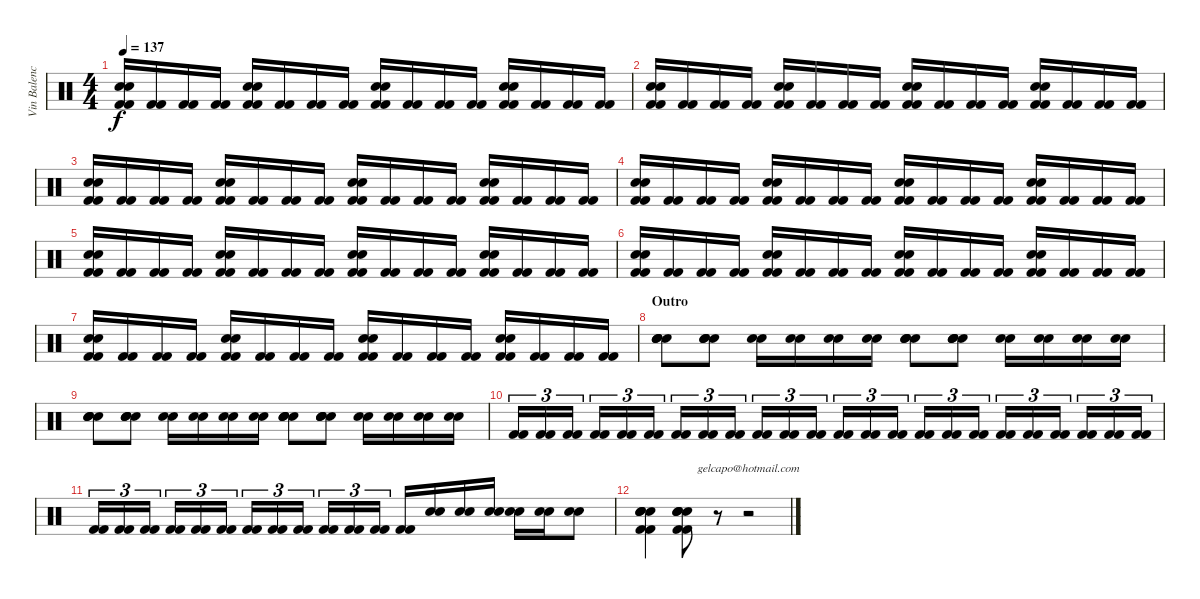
\track ("Vin Balencia (bateria)" "Vin Balenc") {instrument percussion}
\staff {score}
\articulation defaults
\chord ("gelcapo@hotmail.com") {firstfret 0}
\ts (4 4)
\tempo 137
\clef neutral
\ks c
("Electric Snare (hit)" "Electric Snare (hit)" "Kick (hit) 2" "Kick (hit) 2").16{dy f} ("Kick (hit) 2" "Kick (hit) 2").16 ("Kick (hit) 2" "Kick (hit) 2").16 ("Kick (hit) 2" "Kick (hit) 2").16 ("Electric Snare (hit)" "Electric Snare (hit)" "Kick (hit) 2" "Kick (hit) 2").16 ("Kick (hit) 2" "Kick (hit) 2").16 ("Kick (hit) 2" "Kick (hit) 2").16 ("Kick (hit) 2" "Kick (hit) 2").16 ("Electric Snare (hit)" "Electric Snare (hit)" "Kick (hit) 2" "Kick (hit) 2").16 ("Kick (hit) 2" "Kick (hit) 2").16 ("Kick (hit) 2" "Kick (hit) 2").16 ("Kick (hit) 2" "Kick (hit) 2").16 ("Electric Snare (hit)" "Electric Snare (hit)" "Kick (hit) 2" "Kick (hit) 2").16 ("Kick (hit) 2" "Kick (hit) 2").16 ("Kick (hit) 2" "Kick (hit) 2").16 ("Kick (hit) 2" "Kick (hit) 2").16 |
("Electric Snare (hit)" "Electric Snare (hit)" "Kick (hit) 2" "Kick (hit) 2").16 ("Kick (hit) 2" "Kick (hit) 2").16 ("Kick (hit) 2" "Kick (hit) 2").16 ("Kick (hit) 2" "Kick (hit) 2").16 ("Electric Snare (hit)" "Electric Snare (hit)" "Kick (hit) 2" "Kick (hit) 2").16 ("Kick (hit) 2" "Kick (hit) 2").16 ("Kick (hit) 2" "Kick (hit) 2").16 ("Kick (hit) 2" "Kick (hit) 2").16 ("Electric Snare (hit)" "Electric Snare (hit)" "Kick (hit) 2" "Kick (hit) 2").16 ("Kick (hit) 2" "Kick (hit) 2").16 ("Kick (hit) 2" "Kick (hit) 2").16 ("Kick (hit) 2" "Kick (hit) 2").16 ("Electric Snare (hit)" "Electric Snare (hit)" "Kick (hit) 2" "Kick (hit) 2").16 ("Kick (hit) 2" "Kick (hit) 2").16 ("Kick (hit) 2" "Kick (hit) 2").16 ("Kick (hit) 2" "Kick (hit) 2").16 |
("Electric Snare (hit)" "Electric Snare (hit)" "Kick (hit) 2" "Kick (hit) 2").16 ("Kick (hit) 2" "Kick (hit) 2").16 ("Kick (hit) 2" "Kick (hit) 2").16 ("Kick (hit) 2" "Kick (hit) 2").16 ("Electric Snare (hit)" "Electric Snare (hit)" "Kick (hit) 2" "Kick (hit) 2").16 ("Kick (hit) 2" "Kick (hit) 2").16 ("Kick (hit) 2" "Kick (hit) 2").16 ("Kick (hit) 2" "Kick (hit) 2").16 ("Electric Snare (hit)" "Electric Snare (hit)" "Kick (hit) 2" "Kick (hit) 2").16 ("Kick (hit) 2" "Kick (hit) 2").16 ("Kick (hit) 2" "Kick (hit) 2").16 ("Kick (hit) 2" "Kick (hit) 2").16 ("Electric Snare (hit)" "Electric Snare (hit)" "Kick (hit) 2" "Kick (hit) 2").16 ("Kick (hit) 2" "Kick (hit) 2").16 ("Kick (hit) 2" "Kick (hit) 2").16 ("Kick (hit) 2" "Kick (hit) 2").16 |
("Electric Snare (hit)" "Electric Snare (hit)" "Kick (hit) 2" "Kick (hit) 2").16 ("Kick (hit) 2" "Kick (hit) 2").16 ("Kick (hit) 2" "Kick (hit) 2").16 ("Kick (hit) 2" "Kick (hit) 2").16 ("Electric Snare (hit)" "Electric Snare (hit)" "Kick (hit) 2" "Kick (hit) 2").16 ("Kick (hit) 2" "Kick (hit) 2").16 ("Kick (hit) 2" "Kick (hit) 2").16 ("Kick (hit) 2" "Kick (hit) 2").16 ("Electric Snare (hit)" "Electric Snare (hit)" "Kick (hit) 2" "Kick (hit) 2").16 ("Kick (hit) 2" "Kick (hit) 2").16 ("Kick (hit) 2" "Kick (hit) 2").16 ("Kick (hit) 2" "Kick (hit) 2").16 ("Electric Snare (hit)" "Electric Snare (hit)" "Kick (hit) 2" "Kick (hit) 2").16 ("Kick (hit) 2" "Kick (hit) 2").16 ("Kick (hit) 2" "Kick (hit) 2").16 ("Kick (hit) 2" "Kick (hit) 2").16 |
("Electric Snare (hit)" "Electric Snare (hit)" "Kick (hit) 2" "Kick (hit) 2").16 ("Kick (hit) 2" "Kick (hit) 2").16 ("Kick (hit) 2" "Kick (hit) 2").16 ("Kick (hit) 2" "Kick (hit) 2").16 ("Electric Snare (hit)" "Electric Snare (hit)" "Kick (hit) 2" "Kick (hit) 2").16 ("Kick (hit) 2" "Kick (hit) 2").16 ("Kick (hit) 2" "Kick (hit) 2").16 ("Kick (hit) 2" "Kick (hit) 2").16 ("Electric Snare (hit)" "Electric Snare (hit)" "Kick (hit) 2" "Kick (hit) 2").16 ("Kick (hit) 2" "Kick (hit) 2").16 ("Kick (hit) 2" "Kick (hit) 2").16 ("Kick (hit) 2" "Kick (hit) 2").16 ("Electric Snare (hit)" "Electric Snare (hit)" "Kick (hit) 2" "Kick (hit) 2").16 ("Kick (hit) 2" "Kick (hit) 2").16 ("Kick (hit) 2" "Kick (hit) 2").16 ("Kick (hit) 2" "Kick (hit) 2").16 |
("Electric Snare (hit)" "Electric Snare (hit)" "Kick (hit) 2" "Kick (hit) 2").16 ("Kick (hit) 2" "Kick (hit) 2").16 ("Kick (hit) 2" "Kick (hit) 2").16 ("Kick (hit) 2" "Kick (hit) 2").16 ("Electric Snare (hit)" "Electric Snare (hit)" "Kick (hit) 2" "Kick (hit) 2").16 ("Kick (hit) 2" "Kick (hit) 2").16 ("Kick (hit) 2" "Kick (hit) 2").16 ("Kick (hit) 2" "Kick (hit) 2").16 ("Electric Snare (hit)" "Electric Snare (hit)" "Kick (hit) 2" "Kick (hit) 2").16 ("Kick (hit) 2" "Kick (hit) 2").16 ("Kick (hit) 2" "Kick (hit) 2").16 ("Kick (hit) 2" "Kick (hit) 2").16 ("Electric Snare (hit)" "Electric Snare (hit)" "Kick (hit) 2" "Kick (hit) 2").16 ("Kick (hit) 2" "Kick (hit) 2").16 ("Kick (hit) 2" "Kick (hit) 2").16 ("Kick (hit) 2" "Kick (hit) 2").16 |
("Electric Snare (hit)" "Electric Snare (hit)" "Kick (hit) 2" "Kick (hit) 2").16 ("Kick (hit) 2" "Kick (hit) 2").16 ("Kick (hit) 2" "Kick (hit) 2").16 ("Kick (hit) 2" "Kick (hit) 2").16 ("Electric Snare (hit)" "Electric Snare (hit)" "Kick (hit) 2" "Kick (hit) 2").16 ("Kick (hit) 2" "Kick (hit) 2").16 ("Kick (hit) 2" "Kick (hit) 2").16 ("Kick (hit) 2" "Kick (hit) 2").16 ("Electric Snare (hit)" "Electric Snare (hit)" "Kick (hit) 2" "Kick (hit) 2").16 ("Kick (hit) 2" "Kick (hit) 2").16 ("Kick (hit) 2" "Kick (hit) 2").16 ("Kick (hit) 2" "Kick (hit) 2").16 ("Electric Snare (hit)" "Electric Snare (hit)" "Kick (hit) 2" "Kick (hit) 2").16 ("Kick (hit) 2" "Kick (hit) 2").16 ("Kick (hit) 2" "Kick (hit) 2").16 ("Kick (hit) 2" "Kick (hit) 2").16 |
\section ("" "Outro")
("Electric Snare (hit)" "Electric Snare (hit)" "Snare (hit) 2" "Snare (hit) 2").8 ("Electric Snare (hit)" "Electric Snare (hit)" "Snare (hit) 2" "Snare (hit) 2").8 ("Snare (hit) 2" "Snare (hit) 2").16 ("Snare (hit) 2" "Snare (hit) 2").16 ("Snare (hit) 2" "Snare (hit) 2").16 ("Snare (hit) 2" "Snare (hit) 2").16 ("Electric Snare (hit)" "Electric Snare (hit)" "Snare (hit) 2" "Snare (hit) 2").8 ("Electric Snare (hit)" "Electric Snare (hit)" "Snare (hit) 2" "Snare (hit) 2").8 ("Snare (hit) 2" "Snare (hit) 2").16 ("Snare (hit) 2" "Snare (hit) 2").16 ("Snare (hit) 2" "Snare (hit) 2").16 ("Snare (hit) 2" "Snare (hit) 2").16 |
("Electric Snare (hit)" "Electric Snare (hit)" "Snare (hit) 2" "Snare (hit) 2").8 ("Electric Snare (hit)" "Electric Snare (hit)" "Snare (hit) 2" "Snare (hit) 2").8 ("Snare (hit) 2" "Snare (hit) 2").16 ("Snare (hit) 2" "Snare (hit) 2").16 ("Snare (hit) 2" "Snare (hit) 2").16 ("Snare (hit) 2" "Snare (hit) 2").16 ("Electric Snare (hit)" "Electric Snare (hit)" "Snare (hit) 2" "Snare (hit) 2").8 ("Electric Snare (hit)" "Electric Snare (hit)" "Snare (hit) 2" "Snare (hit) 2").8 ("Snare (hit) 2" "Snare (hit) 2").16 ("Snare (hit) 2" "Snare (hit) 2").16 ("Snare (hit) 2" "Snare (hit) 2").16 ("Snare (hit) 2" "Snare (hit) 2").16 |
("Kick (hit) 2" "Kick (hit) 2").16{tu (3 2)} ("Kick (hit) 2" "Kick (hit) 2").16{tu (3 2)} ("Kick (hit) 2" "Kick (hit) 2").16{tu (3 2)} ("Kick (hit) 2" "Kick (hit) 2").16{tu (3 2)} ("Kick (hit) 2" "Kick (hit) 2").16{tu (3 2)} ("Kick (hit) 2" "Kick (hit) 2").16{tu (3 2)} ("Kick (hit) 2" "Kick (hit) 2").16{tu (3 2)} ("Kick (hit) 2" "Kick (hit) 2").16{tu (3 2)} ("Kick (hit) 2" "Kick (hit) 2").16{tu (3 2)} ("Kick (hit) 2" "Kick (hit) 2").16{tu (3 2)} ("Kick (hit) 2" "Kick (hit) 2").16{tu (3 2)} ("Kick (hit) 2" "Kick (hit) 2").16{tu (3 2)} ("Kick (hit) 2" "Kick (hit) 2").16{tu (3 2)} ("Kick (hit) 2" "Kick (hit) 2").16{tu (3 2)} ("Kick (hit) 2" "Kick (hit) 2").16{tu (3 2)} ("Kick (hit) 2" "Kick (hit) 2").16{tu (3 2)} ("Kick (hit) 2" "Kick (hit) 2").16{tu (3 2)} ("Kick (hit) 2" "Kick (hit) 2").16{tu (3 2)} ("Kick (hit) 2" "Kick (hit) 2").16{tu (3 2)} ("Kick (hit) 2" "Kick (hit) 2").16{tu (3 2)} ("Kick (hit) 2" "Kick (hit) 2").16{tu (3 2)} ("Kick (hit) 2" "Kick (hit) 2").16{tu (3 2)} ("Kick (hit) 2" "Kick (hit) 2").16{tu (3 2)} ("Kick (hit) 2" "Kick (hit) 2").16{tu (3 2)} |
("Kick (hit) 2" "Kick (hit) 2").16{tu (3 2)} ("Kick (hit) 2" "Kick (hit) 2").16{tu (3 2)} ("Kick (hit) 2" "Kick (hit) 2").16{tu (3 2)} ("Kick (hit) 2" "Kick (hit) 2").16{tu (3 2)} ("Kick (hit) 2" "Kick (hit) 2").16{tu (3 2)} ("Kick (hit) 2" "Kick (hit) 2").16{tu (3 2)} ("Kick (hit) 2" "Kick (hit) 2").16{tu (3 2)} ("Kick (hit) 2" "Kick (hit) 2").16{tu (3 2)} ("Kick (hit) 2" "Kick (hit) 2").16{tu (3 2)} ("Kick (hit) 2" "Kick (hit) 2").16{tu (3 2)} ("Kick (hit) 2" "Kick (hit) 2").16{tu (3 2)} ("Kick (hit) 2" "Kick (hit) 2").16{tu (3 2)} ("Kick (hit) 2" "Kick (hit) 2").16 ("Snare (hit) 2" "Snare (hit) 2").16 ("Snare (hit) 2" "Snare (hit) 2").16 ("Snare (hit) 2" "Snare (hit) 2").16 ("Snare (hit) 2" "Snare (hit) 2").16 ("Snare (hit) 2" "Snare (hit) 2").16 ("Snare (hit) 2" "Snare (hit) 2").8 |
("Electric Snare (hit)" "Electric Snare (hit)" "Snare (hit) 2" "Snare (hit) 2" "Kick (hit) 2" "Kick (hit) 2").4 ("Electric Snare (hit)" "Electric Snare (hit)" "Snare (hit) 2" "Snare (hit) 2" "Kick (hit) 2" "Kick (hit) 2").8 r.8 r.2{ch "gelcapo@hotmail.com"}
